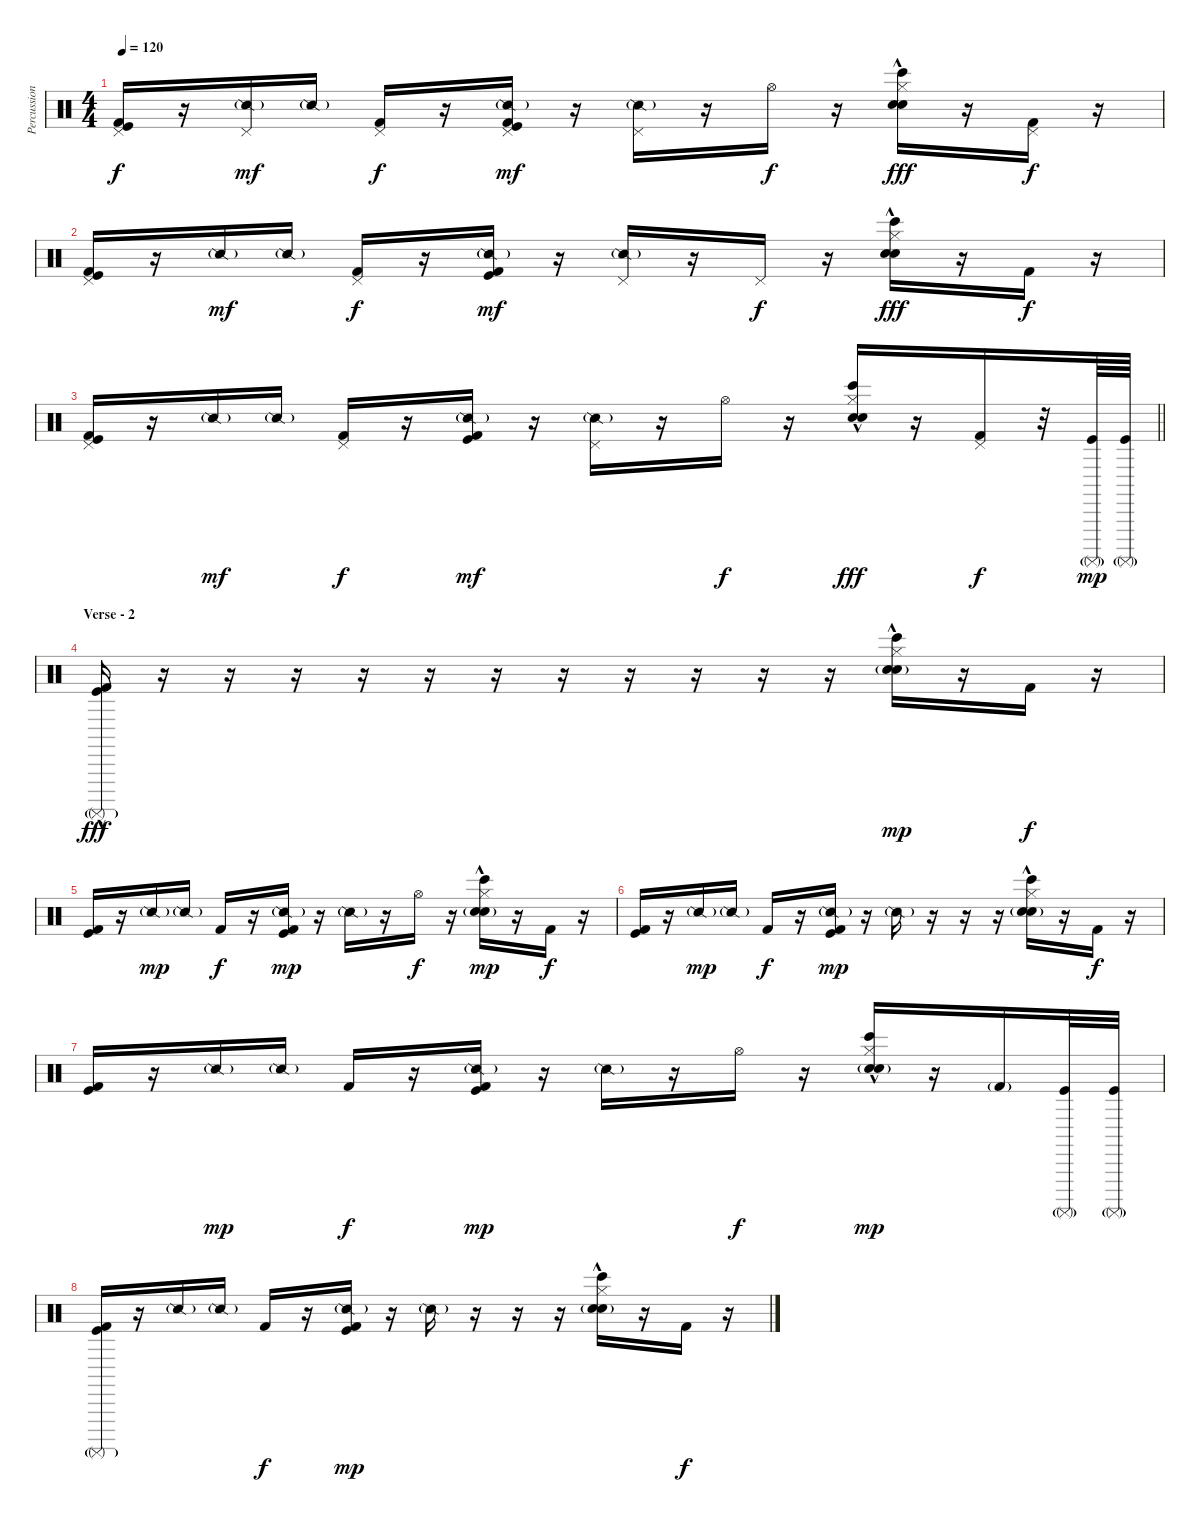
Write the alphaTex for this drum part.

\track ("Percussion" "Percussion") {instrument percussion}
\staff {score}
\articulation defaults
\ts (4 4)
\tempo 120
\clef neutral
\ks c
("Pedal Hi-Hat (hit)" "Kick (hit) 2" "Kick (hit)").16{dy f} r.16 ("Pedal Hi-Hat (hit)" "Snare (side stick) 2"{g}).16{dy mf} "Snare (side stick) 2"{g}.16 ("Pedal Hi-Hat (hit)" "Kick (hit) 2").16{dy f} r.16 ("Pedal Hi-Hat (hit)" "Snare (side stick) 2"{g} "Kick (hit) 2" "Kick (hit)").16{dy mf} r.16 ("Pedal Hi-Hat (hit)" "Snare (side stick) 2"{g}).16 r.16 "Hi-Hat (open)".16{dy f} r.16 ("Hi-Hat (closed)"{hac} "Hand Clap (hit)" "Bongo High (hit)" "Electric Snare (hit)").16{dy fff} r.16 ("Pedal Hi-Hat (hit)" "Kick (hit) 2").16{dy f} r.16 |
("Pedal Hi-Hat (hit)" "Kick (hit) 2" "Kick (hit)").16 r.16 "Snare (side stick) 2"{g}.16{dy mf} "Snare (side stick) 2"{g}.16 ("Pedal Hi-Hat (hit)" "Kick (hit) 2").16{dy f} r.16 ("Snare (side stick) 2"{g} "Kick (hit) 2" "Kick (hit)").16{dy mf} r.16 ("Pedal Hi-Hat (hit)" "Snare (side stick) 2"{g}).16 r.16 "Pedal Hi-Hat (hit)".16{dy f} r.16 ("Hi-Hat (closed)"{hac} "Hand Clap (hit)" "Bongo High (hit)" "Electric Snare (hit)").16{dy fff} r.16 "Kick (hit) 2".16{dy f} r.16 |
\barLineRight lightlight
("Pedal Hi-Hat (hit)" "Kick (hit) 2" "Kick (hit)").16 r.16 "Snare (side stick) 2"{g}.16{dy mf} "Snare (side stick) 2"{g}.16 ("Pedal Hi-Hat (hit)" "Kick (hit) 2").16{dy f} r.16 ("Snare (side stick) 2"{g} "Kick (hit) 2" "Kick (hit)").16{dy mf} r.16 ("Pedal Hi-Hat (hit)" "Snare (side stick) 2"{g}).16 r.16 "Hi-Hat (open)".16{dy f} r.16 ("Hi-Hat (closed)"{hac} "Hand Clap (hit)" "Bongo High (hit)" "Electric Snare (hit)").16{dy fff} r.16 ("Pedal Hi-Hat (hit)" "Kick (hit) 2").16{dy f} r.32 ("Surdo (mute)"{g} "Kick (hit)").64{dy mp} ("Surdo (mute)"{g} "Kick (hit)").64 |
\section ("" "Verse - 2")
("Surdo (mute)"{g} "Kick (hit) 2"{hac} "Kick (hit)").16{dy fff} r.16 r.16 r.16 r.16 r.16 r.16 r.16 r.16 r.16 r.16 r.16 ("Hi-Hat (closed)"{hac} "Hand Clap (hit)" "Bongo High (hit)" "Electric Snare (hit)"{g}).16{dy mp} r.16 "Kick (hit) 2".16{dy f} r.16 |
("Kick (hit) 2" "Kick (hit)").16 r.16 "Snare (side stick) 2"{g}.16{dy mp} "Snare (side stick) 2"{g}.16 "Kick (hit) 2".16{dy f} r.16 ("Snare (side stick) 2"{g} "Kick (hit) 2" "Kick (hit)").16{dy mp} r.16 "Snare (side stick) 2"{g}.16 r.16 "Hi-Hat (open)".16{dy f} r.16 ("Hi-Hat (closed)"{hac} "Hand Clap (hit)" "Bongo High (hit)" "Electric Snare (hit)"{g}).16{dy mp} r.16 "Kick (hit) 2".16{dy f} r.16 |
("Kick (hit) 2" "Kick (hit)").16 r.16 "Snare (side stick) 2"{g}.16{dy mp} "Snare (side stick) 2"{g}.16 "Kick (hit) 2".16{dy f} r.16 ("Snare (side stick) 2"{g} "Kick (hit) 2" "Kick (hit)").16{dy mp} r.16 "Snare (side stick) 2"{g}.16 r.16 r.16 r.16 ("Hi-Hat (closed)"{hac} "Hand Clap (hit)" "Bongo High (hit)" "Electric Snare (hit)"{g}).16 r.16 "Kick (hit) 2".16{dy f} r.16 |
("Kick (hit) 2" "Kick (hit)").16 r.16 "Snare (side stick) 2"{g}.16{dy mp} "Snare (side stick) 2"{g}.16 "Kick (hit) 2".16{dy f} r.16 ("Snare (side stick) 2"{g} "Kick (hit) 2" "Kick (hit)").16{dy mp} r.16 "Snare (side stick) 2"{g}.16 r.16 "Hi-Hat (open)".16{dy f} r.16 ("Hi-Hat (closed)"{hac} "Hand Clap (hit)" "Bongo High (hit)" "Electric Snare (hit)"{g}).16{dy mp} r.16 "Kick (hit) 2"{g}.16 ("Surdo (mute)"{g} "Kick (hit)").32 ("Surdo (mute)"{g} "Kick (hit)").32 |
("Surdo (mute)"{g} "Kick (hit) 2" "Kick (hit)").16 r.16 "Snare (side stick) 2"{g}.16 "Snare (side stick) 2"{g}.16 "Kick (hit) 2".16{dy f} r.16 ("Snare (side stick) 2"{g} "Kick (hit) 2" "Kick (hit)").16{dy mp} r.16 "Snare (side stick) 2"{g}.16 r.16 r.16 r.16 ("Hi-Hat (closed)"{hac} "Hand Clap (hit)" "Bongo High (hit)" "Electric Snare (hit)"{g}).16 r.16 "Kick (hit) 2".16{dy f} r.16
